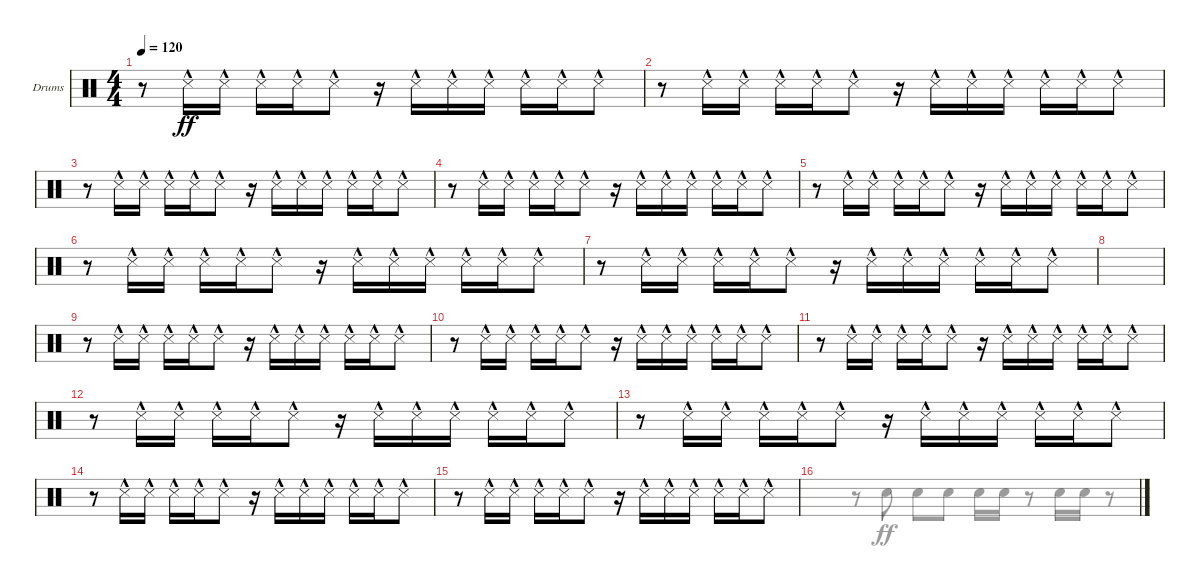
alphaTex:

\defaultSystemsLayout 4
\bracketExtendMode groupsimilarinstruments
\firstSystemTrackNameOrientation horizontal
\otherSystemsTrackNameOrientation horizontal
\track ("Drumkit" "Drums") {instrument percussion}
\staff {score}
\articulation defaults
\voice
\ts (4 4)
\tempo 120
\clef neutral
\scale
0.333333
\ks c
r.8{dy ff} "Snare (side stick) 3"{hac}.16 "Snare (side stick) 3"{hac}.16 "Snare (side stick) 3"{hac}.16 "Snare (side stick) 3"{hac}.16 "Snare (side stick) 3"{hac}.8 r.16 "Snare (side stick) 3"{hac}.16 "Snare (side stick) 3"{hac}.16 "Snare (side stick) 3"{hac}.16 "Snare (side stick) 3"{hac}.16 "Snare (side stick) 3"{hac}.16 "Snare (side stick) 3"{hac}.8 |
\scale
0.333333 r.8 "Snare (side stick) 3"{hac}.16 "Snare (side stick) 3"{hac}.16 "Snare (side stick) 3"{hac}.16 "Snare (side stick) 3"{hac}.16 "Snare (side stick) 3"{hac}.8 r.16 "Snare (side stick) 3"{hac}.16 "Snare (side stick) 3"{hac}.16 "Snare (side stick) 3"{hac}.16 "Snare (side stick) 3"{hac}.16 "Snare (side stick) 3"{hac}.16 "Snare (side stick) 3"{hac}.8 |
\scale
0.333333 r.8 "Snare (side stick) 3"{hac}.16 "Snare (side stick) 3"{hac}.16 "Snare (side stick) 3"{hac}.16 "Snare (side stick) 3"{hac}.16 "Snare (side stick) 3"{hac}.8 r.16 "Snare (side stick) 3"{hac}.16 "Snare (side stick) 3"{hac}.16 "Snare (side stick) 3"{hac}.16 "Snare (side stick) 3"{hac}.16 "Snare (side stick) 3"{hac}.16 "Snare (side stick) 3"{hac}.8 |
\scale
0.333333 r.8 "Snare (side stick) 3"{hac}.16 "Snare (side stick) 3"{hac}.16 "Snare (side stick) 3"{hac}.16 "Snare (side stick) 3"{hac}.16 "Snare (side stick) 3"{hac}.8 r.16 "Snare (side stick) 3"{hac}.16 "Snare (side stick) 3"{hac}.16 "Snare (side stick) 3"{hac}.16 "Snare (side stick) 3"{hac}.16 "Snare (side stick) 3"{hac}.16 "Snare (side stick) 3"{hac}.8 |
\scale
0.333333 r.8 "Snare (side stick) 3"{hac}.16 "Snare (side stick) 3"{hac}.16 "Snare (side stick) 3"{hac}.16 "Snare (side stick) 3"{hac}.16 "Snare (side stick) 3"{hac}.8 r.16 "Snare (side stick) 3"{hac}.16 "Snare (side stick) 3"{hac}.16 "Snare (side stick) 3"{hac}.16 "Snare (side stick) 3"{hac}.16 "Snare (side stick) 3"{hac}.16 "Snare (side stick) 3"{hac}.8 |
\scale
0.333333 r.8 "Snare (side stick) 3"{hac}.16 "Snare (side stick) 3"{hac}.16 "Snare (side stick) 3"{hac}.16 "Snare (side stick) 3"{hac}.16 "Snare (side stick) 3"{hac}.8 r.16 "Snare (side stick) 3"{hac}.16 "Snare (side stick) 3"{hac}.16 "Snare (side stick) 3"{hac}.16 "Snare (side stick) 3"{hac}.16 "Snare (side stick) 3"{hac}.16 "Snare (side stick) 3"{hac}.8 |
\scale
0.333333 r.8 "Snare (side stick) 3"{hac}.16 "Snare (side stick) 3"{hac}.16 "Snare (side stick) 3"{hac}.16 "Snare (side stick) 3"{hac}.16 "Snare (side stick) 3"{hac}.8 r.16 "Snare (side stick) 3"{hac}.16 "Snare (side stick) 3"{hac}.16 "Snare (side stick) 3"{hac}.16 "Snare (side stick) 3"{hac}.16 "Snare (side stick) 3"{hac}.16 "Snare (side stick) 3"{hac}.8 |
\scale
0.333333 |
\scale
0.333333 r.8 "Snare (side stick) 3"{hac}.16 "Snare (side stick) 3"{hac}.16 "Snare (side stick) 3"{hac}.16 "Snare (side stick) 3"{hac}.16 "Snare (side stick) 3"{hac}.8 r.16 "Snare (side stick) 3"{hac}.16 "Snare (side stick) 3"{hac}.16 "Snare (side stick) 3"{hac}.16 "Snare (side stick) 3"{hac}.16 "Snare (side stick) 3"{hac}.16 "Snare (side stick) 3"{hac}.8 |
\scale
0.333333 r.8 "Snare (side stick) 3"{hac}.16 "Snare (side stick) 3"{hac}.16 "Snare (side stick) 3"{hac}.16 "Snare (side stick) 3"{hac}.16 "Snare (side stick) 3"{hac}.8 r.16 "Snare (side stick) 3"{hac}.16 "Snare (side stick) 3"{hac}.16 "Snare (side stick) 3"{hac}.16 "Snare (side stick) 3"{hac}.16 "Snare (side stick) 3"{hac}.16 "Snare (side stick) 3"{hac}.8 |
\scale
0.333333 r.8 "Snare (side stick) 3"{hac}.16 "Snare (side stick) 3"{hac}.16 "Snare (side stick) 3"{hac}.16 "Snare (side stick) 3"{hac}.16 "Snare (side stick) 3"{hac}.8 r.16 "Snare (side stick) 3"{hac}.16 "Snare (side stick) 3"{hac}.16 "Snare (side stick) 3"{hac}.16 "Snare (side stick) 3"{hac}.16 "Snare (side stick) 3"{hac}.16 "Snare (side stick) 3"{hac}.8 |
\scale
0.333333 r.8 "Snare (side stick) 3"{hac}.16 "Snare (side stick) 3"{hac}.16 "Snare (side stick) 3"{hac}.16 "Snare (side stick) 3"{hac}.16 "Snare (side stick) 3"{hac}.8 r.16 "Snare (side stick) 3"{hac}.16 "Snare (side stick) 3"{hac}.16 "Snare (side stick) 3"{hac}.16 "Snare (side stick) 3"{hac}.16 "Snare (side stick) 3"{hac}.16 "Snare (side stick) 3"{hac}.8 |
\scale
0.333333 r.8 "Snare (side stick) 3"{hac}.16 "Snare (side stick) 3"{hac}.16 "Snare (side stick) 3"{hac}.16 "Snare (side stick) 3"{hac}.16 "Snare (side stick) 3"{hac}.8 r.16 "Snare (side stick) 3"{hac}.16 "Snare (side stick) 3"{hac}.16 "Snare (side stick) 3"{hac}.16 "Snare (side stick) 3"{hac}.16 "Snare (side stick) 3"{hac}.16 "Snare (side stick) 3"{hac}.8 |
\scale
0.333333 r.8 "Snare (side stick) 3"{hac}.16 "Snare (side stick) 3"{hac}.16 "Snare (side stick) 3"{hac}.16 "Snare (side stick) 3"{hac}.16 "Snare (side stick) 3"{hac}.8 r.16 "Snare (side stick) 3"{hac}.16 "Snare (side stick) 3"{hac}.16 "Snare (side stick) 3"{hac}.16 "Snare (side stick) 3"{hac}.16 "Snare (side stick) 3"{hac}.16 "Snare (side stick) 3"{hac}.8 |
\scale
0.333333 r.8 "Snare (side stick) 3"{hac}.16 "Snare (side stick) 3"{hac}.16 "Snare (side stick) 3"{hac}.16 "Snare (side stick) 3"{hac}.16 "Snare (side stick) 3"{hac}.8 r.16 "Snare (side stick) 3"{hac}.16 "Snare (side stick) 3"{hac}.16 "Snare (side stick) 3"{hac}.16 "Snare (side stick) 3"{hac}.16 "Snare (side stick) 3"{hac}.16 "Snare (side stick) 3"{hac}.8 |
\scale
0.333333
\voice
\clef neutral
\ottava regular
\simile none
\scale
0.333333
\ks c
|
\scale
0.333333 |
\scale
0.333333 |
\scale
0.333333 |
\scale
0.333333 |
\scale
0.333333 |
\scale
0.333333 |
\scale
0.333333 |
\scale
0.333333 |
\scale
0.333333 |
\scale
0.333333 |
\scale
0.333333 |
\scale
0.333333 |
\scale
0.333333 |
\scale
0.333333 |
\scale
0.333333 r.8 "Snare (hit) 2".8 "Snare (hit) 2".8 "Snare (hit) 2".8 "Snare (hit) 2".16 "Snare (hit) 2".16 r.8 "Snare (hit) 2".16 "Snare (hit) 2".16 r.8
